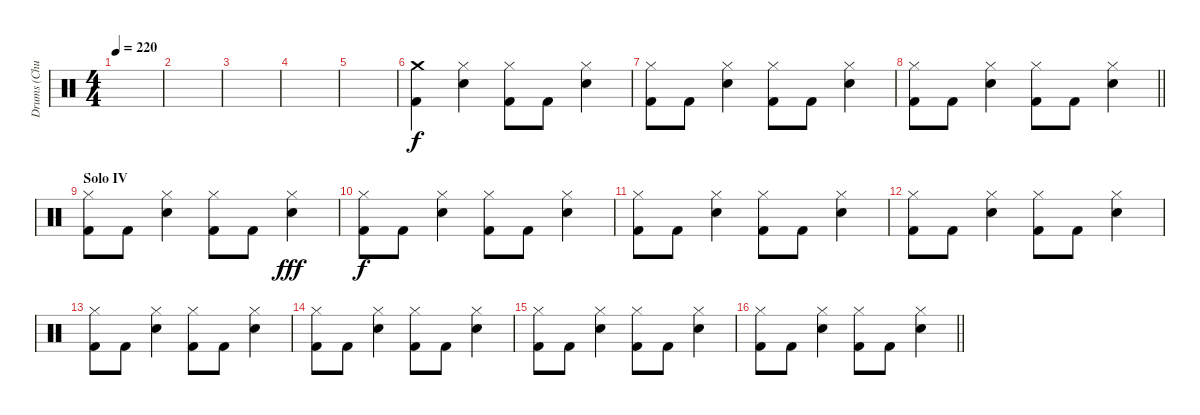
\track ("Drums (Chuck Behler)" "Drums (Chu") {instrument percussion}
\staff {score}
\articulation defaults
\ts (4 4)
\tempo 220
\clef neutral
\ks c
|
|
|
|
|
("Crash medium (hit)" "Kick (hit) 2").4 ("Hi-Hat (closed)" "Snare (hit) 2").4 ("Hi-Hat (closed)" "Kick (hit) 2").8 "Kick (hit) 2".8 ("Hi-Hat (closed)" "Snare (hit) 2").4 |
("Hi-Hat (closed)" "Kick (hit) 2").8 "Kick (hit) 2".8 ("Hi-Hat (closed)" "Snare (hit) 2").4 ("Hi-Hat (closed)" "Kick (hit) 2").8 "Kick (hit) 2".8 ("Hi-Hat (closed)" "Snare (hit) 2").4 |
\barLineRight lightlight
("Hi-Hat (closed)" "Kick (hit) 2").8 "Kick (hit) 2".8 ("Hi-Hat (closed)" "Snare (hit) 2").4 ("Hi-Hat (closed)" "Kick (hit) 2").8 "Kick (hit) 2".8 ("Hi-Hat (closed)" "Snare (hit) 2").4 |
\section ("" "Solo IV")
("Hi-Hat (closed)" "Kick (hit) 2").8 "Kick (hit) 2".8 ("Hi-Hat (closed)" "Snare (hit) 2").4 ("Hi-Hat (closed)" "Kick (hit) 2").8 "Kick (hit) 2".8 ("Hi-Hat (closed)" "Snare (hit) 2").4{dy fff} |
("Hi-Hat (closed)" "Kick (hit) 2").8{dy f} "Kick (hit) 2".8 ("Hi-Hat (closed)" "Snare (hit) 2").4 ("Hi-Hat (closed)" "Kick (hit) 2").8 "Kick (hit) 2".8 ("Hi-Hat (closed)" "Snare (hit) 2").4 |
("Hi-Hat (closed)" "Kick (hit) 2").8 "Kick (hit) 2".8 ("Hi-Hat (closed)" "Snare (hit) 2").4 ("Hi-Hat (closed)" "Kick (hit) 2").8 "Kick (hit) 2".8 ("Hi-Hat (closed)" "Snare (hit) 2").4 |
("Hi-Hat (closed)" "Kick (hit) 2").8 "Kick (hit) 2".8 ("Hi-Hat (closed)" "Snare (hit) 2").4 ("Hi-Hat (closed)" "Kick (hit) 2").8 "Kick (hit) 2".8 ("Hi-Hat (closed)" "Snare (hit) 2").4 |
("Hi-Hat (closed)" "Kick (hit) 2").8 "Kick (hit) 2".8 ("Hi-Hat (closed)" "Snare (hit) 2").4 ("Hi-Hat (closed)" "Kick (hit) 2").8 "Kick (hit) 2".8 ("Hi-Hat (closed)" "Snare (hit) 2").4 |
("Hi-Hat (closed)" "Kick (hit) 2").8 "Kick (hit) 2".8 ("Hi-Hat (closed)" "Snare (hit) 2").4 ("Hi-Hat (closed)" "Kick (hit) 2").8 "Kick (hit) 2".8 ("Hi-Hat (closed)" "Snare (hit) 2").4 |
("Hi-Hat (closed)" "Kick (hit) 2").8 "Kick (hit) 2".8 ("Hi-Hat (closed)" "Snare (hit) 2").4 ("Hi-Hat (closed)" "Kick (hit) 2").8 "Kick (hit) 2".8 ("Hi-Hat (closed)" "Snare (hit) 2").4 |
\barLineRight lightlight
("Hi-Hat (closed)" "Kick (hit) 2").8 "Kick (hit) 2".8 ("Hi-Hat (closed)" "Snare (hit) 2").4 ("Hi-Hat (closed)" "Kick (hit) 2").8 "Kick (hit) 2".8 ("Hi-Hat (closed)" "Snare (hit) 2").4
